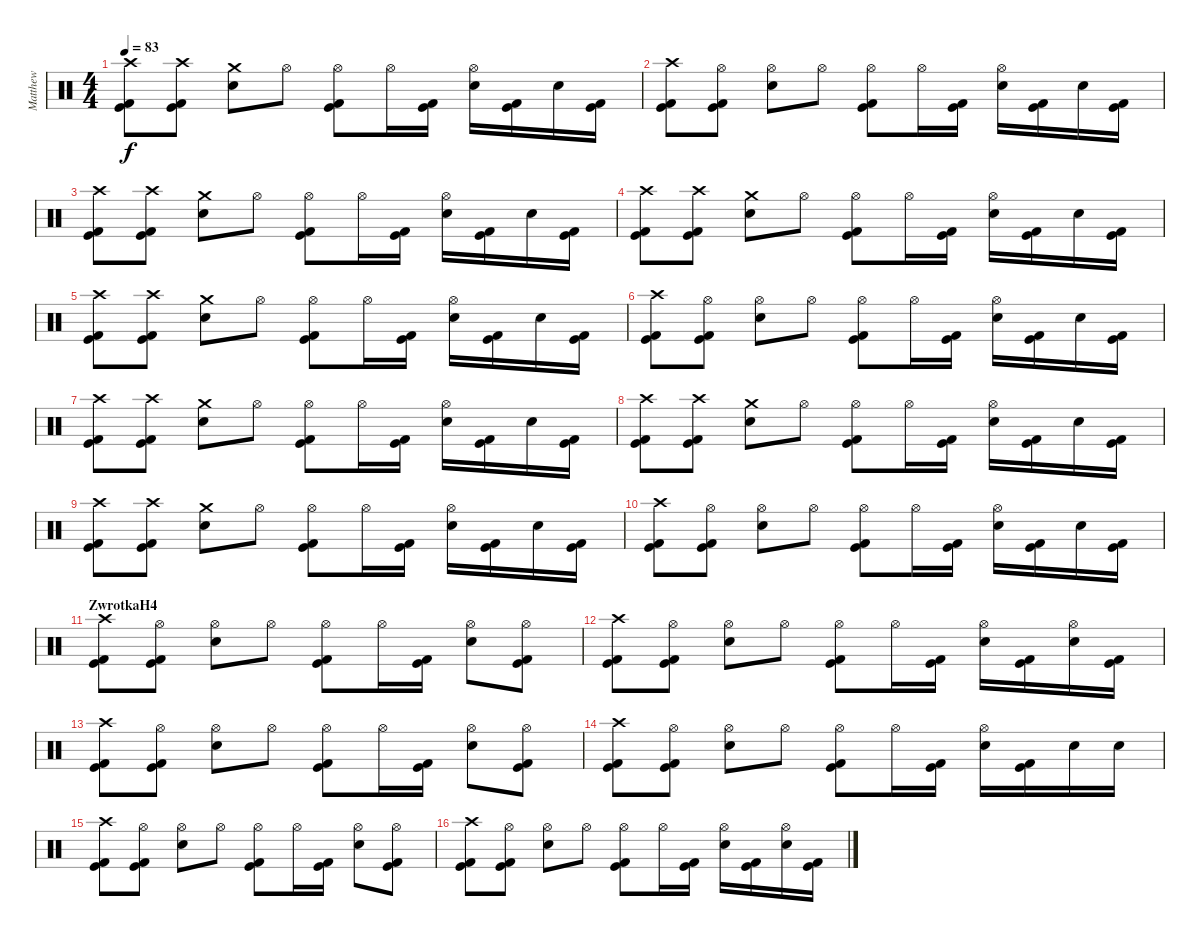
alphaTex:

\track ("Matthew" "Matthew") {instrument percussion}
\staff {score}
\articulation defaults
\ts (4 4)
\tempo 83
\clef neutral
\ks c
("Kick (hit) 2" "Kick (hit)" "Crash high (hit)").8{dy f} ("Kick (hit)" "Kick (hit) 2" "Crash high (hit)").8 ("Snare (hit) 2" "Crash medium (hit)").8 "Hi-Hat (open)".8 ("Kick (hit) 2" "Kick (hit)" "Hi-Hat (open)").8 "Hi-Hat (open)".16 ("Kick (hit) 2" "Kick (hit)").16 ("Snare (hit) 2" "Hi-Hat (open)").16 ("Kick (hit) 2" "Kick (hit)").16 "Snare (hit) 2".16 ("Kick (hit) 2" "Kick (hit)").16 |
("Kick (hit) 2" "Kick (hit)" "Crash high (hit)").8 ("Kick (hit) 2" "Kick (hit)" "Hi-Hat (open)").8 ("Snare (hit) 2" "Hi-Hat (open)").8 "Hi-Hat (open)".8 ("Kick (hit)" "Kick (hit) 2" "Hi-Hat (open)").8 "Hi-Hat (open)".16 ("Kick (hit) 2" "Kick (hit)").16 ("Snare (hit) 2" "Hi-Hat (open)").16 ("Kick (hit) 2" "Kick (hit)").16 "Snare (hit) 2".16 ("Kick (hit) 2" "Kick (hit)").16 |
("Kick (hit) 2" "Kick (hit)" "Crash high (hit)").8 ("Kick (hit)" "Kick (hit) 2" "Crash high (hit)").8 ("Snare (hit) 2" "Crash medium (hit)").8 "Hi-Hat (open)".8 ("Kick (hit) 2" "Kick (hit)" "Hi-Hat (open)").8 "Hi-Hat (open)".16 ("Kick (hit) 2" "Kick (hit)").16 ("Snare (hit) 2" "Hi-Hat (open)").16 ("Kick (hit) 2" "Kick (hit)").16 "Snare (hit) 2".16 ("Kick (hit) 2" "Kick (hit)").16 |
("Kick (hit) 2" "Kick (hit)" "Crash high (hit)").8 ("Kick (hit)" "Kick (hit) 2" "Crash high (hit)").8 ("Snare (hit) 2" "Crash medium (hit)").8 "Hi-Hat (open)".8 ("Kick (hit) 2" "Kick (hit)" "Hi-Hat (open)").8 "Hi-Hat (open)".16 ("Kick (hit) 2" "Kick (hit)").16 ("Snare (hit) 2" "Hi-Hat (open)").16 ("Kick (hit) 2" "Kick (hit)").16 "Snare (hit) 2".16 ("Kick (hit) 2" "Kick (hit)").16 |
("Kick (hit) 2" "Kick (hit)" "Crash high (hit)").8 ("Kick (hit)" "Kick (hit) 2" "Crash high (hit)").8 ("Snare (hit) 2" "Crash medium (hit)").8 "Hi-Hat (open)".8 ("Kick (hit) 2" "Kick (hit)" "Hi-Hat (open)").8 "Hi-Hat (open)".16 ("Kick (hit) 2" "Kick (hit)").16 ("Snare (hit) 2" "Hi-Hat (open)").16 ("Kick (hit) 2" "Kick (hit)").16 "Snare (hit) 2".16 ("Kick (hit) 2" "Kick (hit)").16 |
("Kick (hit) 2" "Kick (hit)" "Crash high (hit)").8 ("Kick (hit) 2" "Kick (hit)" "Hi-Hat (open)").8 ("Snare (hit) 2" "Hi-Hat (open)").8 "Hi-Hat (open)".8 ("Kick (hit)" "Kick (hit) 2" "Hi-Hat (open)").8 "Hi-Hat (open)".16 ("Kick (hit) 2" "Kick (hit)").16 ("Snare (hit) 2" "Hi-Hat (open)").16 ("Kick (hit) 2" "Kick (hit)").16 "Snare (hit) 2".16 ("Kick (hit) 2" "Kick (hit)").16 |
("Kick (hit) 2" "Kick (hit)" "Crash high (hit)").8 ("Kick (hit)" "Kick (hit) 2" "Crash high (hit)").8 ("Snare (hit) 2" "Crash medium (hit)").8 "Hi-Hat (open)".8 ("Kick (hit) 2" "Kick (hit)" "Hi-Hat (open)").8 "Hi-Hat (open)".16 ("Kick (hit) 2" "Kick (hit)").16 ("Snare (hit) 2" "Hi-Hat (open)").16 ("Kick (hit) 2" "Kick (hit)").16 "Snare (hit) 2".16 ("Kick (hit) 2" "Kick (hit)").16 |
("Kick (hit) 2" "Kick (hit)" "Crash high (hit)").8 ("Kick (hit)" "Kick (hit) 2" "Crash high (hit)").8 ("Snare (hit) 2" "Crash medium (hit)").8 "Hi-Hat (open)".8 ("Kick (hit) 2" "Kick (hit)" "Hi-Hat (open)").8 "Hi-Hat (open)".16 ("Kick (hit) 2" "Kick (hit)").16 ("Snare (hit) 2" "Hi-Hat (open)").16 ("Kick (hit) 2" "Kick (hit)").16 "Snare (hit) 2".16 ("Kick (hit) 2" "Kick (hit)").16 |
("Kick (hit) 2" "Kick (hit)" "Crash high (hit)").8 ("Kick (hit)" "Kick (hit) 2" "Crash high (hit)").8 ("Snare (hit) 2" "Crash medium (hit)").8 "Hi-Hat (open)".8 ("Kick (hit) 2" "Kick (hit)" "Hi-Hat (open)").8 "Hi-Hat (open)".16 ("Kick (hit) 2" "Kick (hit)").16 ("Snare (hit) 2" "Hi-Hat (open)").16 ("Kick (hit) 2" "Kick (hit)").16 "Snare (hit) 2".16 ("Kick (hit) 2" "Kick (hit)").16 |
("Kick (hit) 2" "Kick (hit)" "Crash high (hit)").8 ("Kick (hit) 2" "Kick (hit)" "Hi-Hat (open)").8 ("Snare (hit) 2" "Hi-Hat (open)").8 "Hi-Hat (open)".8 ("Kick (hit)" "Kick (hit) 2" "Hi-Hat (open)").8 "Hi-Hat (open)".16 ("Kick (hit) 2" "Kick (hit)").16 ("Snare (hit) 2" "Hi-Hat (open)").16 ("Kick (hit) 2" "Kick (hit)").16 "Snare (hit) 2".16 ("Kick (hit) 2" "Kick (hit)").16 |
\section ("" "ZwrotkaH4")
("Kick (hit) 2" "Kick (hit)" "Crash high (hit)").8 ("Kick (hit) 2" "Kick (hit)" "Hi-Hat (open)").8 ("Snare (hit) 2" "Hi-Hat (open)").8 "Hi-Hat (open)".8 ("Hi-Hat (open)" "Kick (hit) 2" "Kick (hit)").8 "Hi-Hat (open)".16 ("Kick (hit) 2" "Kick (hit)").16 ("Snare (hit) 2" "Hi-Hat (open)").8 ("Kick (hit) 2" "Kick (hit)" "Hi-Hat (open)").8 |
("Kick (hit) 2" "Kick (hit)" "Crash high (hit)").8 ("Kick (hit) 2" "Kick (hit)" "Hi-Hat (open)").8 ("Snare (hit) 2" "Hi-Hat (open)").8 "Hi-Hat (open)".8 ("Hi-Hat (open)" "Kick (hit) 2" "Kick (hit)").8 "Hi-Hat (open)".16 ("Kick (hit) 2" "Kick (hit)").16 ("Snare (hit) 2" "Hi-Hat (open)").16 ("Kick (hit) 2" "Kick (hit)").16 ("Snare (hit) 2" "Hi-Hat (open)").16 ("Kick (hit) 2" "Kick (hit)").16 |
("Kick (hit) 2" "Kick (hit)" "Crash high (hit)").8 ("Kick (hit) 2" "Kick (hit)" "Hi-Hat (open)").8 ("Snare (hit) 2" "Hi-Hat (open)").8 "Hi-Hat (open)".8 ("Hi-Hat (open)" "Kick (hit) 2" "Kick (hit)").8 "Hi-Hat (open)".16 ("Kick (hit) 2" "Kick (hit)").16 ("Snare (hit) 2" "Hi-Hat (open)").8 ("Kick (hit) 2" "Kick (hit)" "Hi-Hat (open)").8 |
("Kick (hit) 2" "Kick (hit)" "Crash high (hit)").8 ("Kick (hit) 2" "Kick (hit)" "Hi-Hat (open)").8 ("Snare (hit) 2" "Hi-Hat (open)").8 "Hi-Hat (open)".8 ("Hi-Hat (open)" "Kick (hit) 2" "Kick (hit)").8 "Hi-Hat (open)".16 ("Kick (hit) 2" "Kick (hit)").16 ("Snare (hit) 2" "Hi-Hat (open)").16 ("Kick (hit) 2" "Kick (hit)").16 "Snare (hit) 2".16 "Snare (hit) 2".16 |
("Kick (hit) 2" "Kick (hit)" "Crash high (hit)").8 ("Kick (hit) 2" "Kick (hit)" "Hi-Hat (open)").8 ("Snare (hit) 2" "Hi-Hat (open)").8 "Hi-Hat (open)".8 ("Hi-Hat (open)" "Kick (hit) 2" "Kick (hit)").8 "Hi-Hat (open)".16 ("Kick (hit) 2" "Kick (hit)").16 ("Snare (hit) 2" "Hi-Hat (open)").8 ("Kick (hit) 2" "Kick (hit)" "Hi-Hat (open)").8 |
("Kick (hit) 2" "Kick (hit)" "Crash high (hit)").8 ("Kick (hit) 2" "Kick (hit)" "Hi-Hat (open)").8 ("Snare (hit) 2" "Hi-Hat (open)").8 "Hi-Hat (open)".8 ("Hi-Hat (open)" "Kick (hit) 2" "Kick (hit)").8 "Hi-Hat (open)".16 ("Kick (hit) 2" "Kick (hit)").16 ("Snare (hit) 2" "Hi-Hat (open)").16 ("Kick (hit) 2" "Kick (hit)").16 ("Snare (hit) 2" "Hi-Hat (open)").16 ("Kick (hit) 2" "Kick (hit)").16
